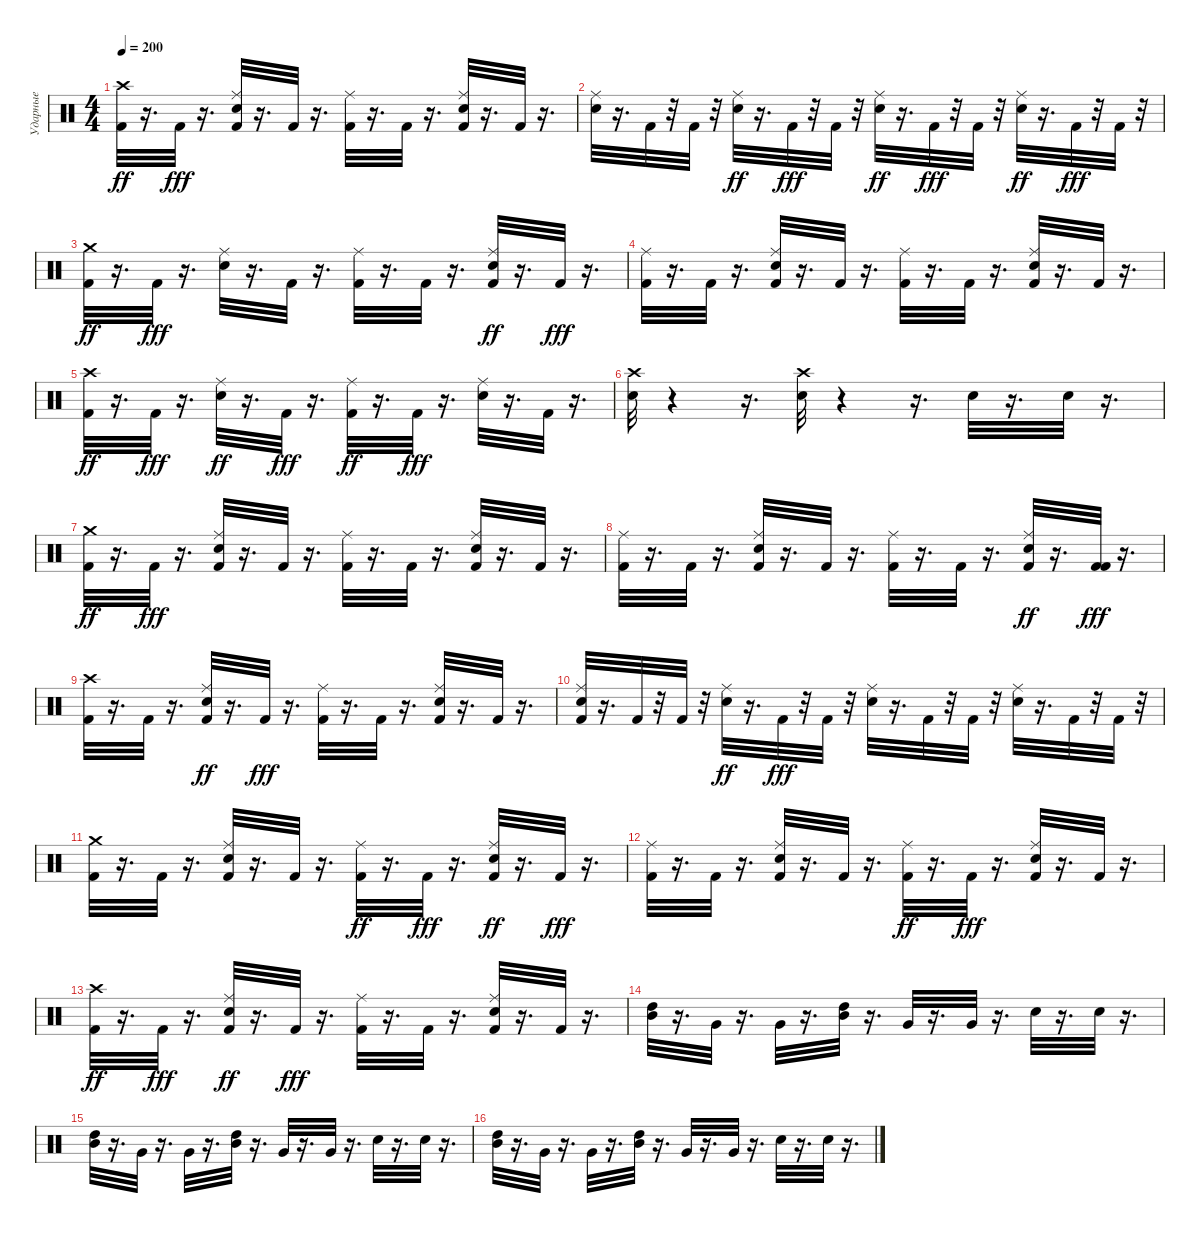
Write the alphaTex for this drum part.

\track ("Ударные" "Ударные") {instrument percussion}
\staff {score}
\articulation defaults
\ts (4 4)
\tempo 200
\clef neutral
\ks c
("Kick (hit) 2" "Crash high (hit)").32{dy ff} r.16{d} "Kick (hit) 2".32{dy fff} r.16{d} ("Kick (hit) 2" "Ride (middle)" "Snare (hit) 2").32 r.16{d} "Kick (hit) 2".32 r.16{d} ("Ride (middle)" "Kick (hit) 2").32 r.16{d} "Kick (hit) 2".32 r.16{d} ("Kick (hit) 2" "Ride (middle)" "Snare (hit) 2").32 r.16{d} "Kick (hit) 2".32 r.16{d} |
("Ride (middle)" "Snare (hit) 2").32 r.16{d} "Kick (hit) 2".32 r.32 "Kick (hit) 2".32 r.32 ("Snare (hit) 2" "Ride (middle)").32{dy ff} r.16{d} "Kick (hit) 2".32{dy fff} r.32 "Kick (hit) 2".32 r.32 ("Snare (hit) 2" "Ride (middle)").32{dy ff} r.16{d} "Kick (hit) 2".32{dy fff} r.32 "Kick (hit) 2".32 r.32 ("Snare (hit) 2" "Ride (middle)").32{dy ff} r.16{d} "Kick (hit) 2".32{dy fff} r.32 "Kick (hit) 2".32 r.32 |
("Kick (hit) 2" "Crash medium (hit)").32{dy ff} r.16{d} "Kick (hit) 2".32{dy fff} r.16{d} ("Ride (middle)" "Snare (hit) 2").32 r.16{d} "Kick (hit) 2".32 r.16{d} ("Ride (middle)" "Kick (hit) 2").32 r.16{d} "Kick (hit) 2".32 r.16{d} ("Kick (hit) 2" "Snare (hit) 2" "Ride (middle)").32{dy ff} r.16{d} "Kick (hit) 2".32{dy fff} r.16{d} |
("Ride (middle)" "Kick (hit) 2").32 r.16{d} "Kick (hit) 2".32 r.16{d} ("Kick (hit) 2" "Ride (middle)" "Snare (hit) 2").32 r.16{d} "Kick (hit) 2".32 r.16{d} ("Ride (middle)" "Kick (hit) 2").32 r.16{d} "Kick (hit) 2".32 r.16{d} ("Kick (hit) 2" "Ride (middle)" "Snare (hit) 2").32 r.16{d} "Kick (hit) 2".32 r.16{d} |
("Kick (hit) 2" "Crash high (hit)").32{dy ff} r.16{d} "Kick (hit) 2".32{dy fff} r.16{d} ("Snare (hit) 2" "Ride (middle)").32{dy ff} r.16{d} "Kick (hit) 2".32{dy fff} r.16{d} ("Kick (hit) 2" "Ride (middle)").32{dy ff} r.16{d} "Kick (hit) 2".32{dy fff} r.16{d} ("Ride (middle)" "Snare (hit) 2").32 r.16{d} "Kick (hit) 2".32 r.16{d} |
("Crash high (hit)" "Snare (hit) 2").32 r.4 r.16{d} ("Crash high (hit)" "Snare (hit) 2").32 r.4 r.16{d} "Snare (hit) 2".32 r.16{d} "Snare (hit) 2".32 r.16{d} |
("Kick (hit) 2" "Crash medium (hit)").32{dy ff} r.16{d} "Kick (hit) 2".32{dy fff} r.16{d} ("Kick (hit) 2" "Ride (middle)" "Snare (hit) 2").32 r.16{d} "Kick (hit) 2".32 r.16{d} ("Ride (middle)" "Kick (hit) 2").32 r.16{d} "Kick (hit) 2".32 r.16{d} ("Kick (hit) 2" "Ride (middle)" "Snare (hit) 2").32 r.16{d} "Kick (hit) 2".32 r.16{d} |
("Ride (middle)" "Kick (hit) 2").32 r.16{d} "Kick (hit) 2".32 r.16{d} ("Ride (middle)" "Snare (hit) 2" "Kick (hit) 2").32 r.16{d} "Kick (hit) 2".32 r.16{d} ("Ride (middle)" "Kick (hit) 2").32 r.16{d} "Kick (hit) 2".32 r.16{d} ("Kick (hit) 2" "Snare (hit) 2" "Ride (middle)").32{dy ff} r.16{d} ("Kick (hit) 2" "Kick (hit) 2").32{dy fff} r.16{d} |
("Crash high (hit)" "Kick (hit) 2").32 r.16{d} "Kick (hit) 2".32 r.16{d} ("Snare (hit) 2" "Kick (hit) 2" "Ride (middle)").32{dy ff} r.16{d} "Kick (hit) 2".32{dy fff} r.16{d} ("Ride (middle)" "Kick (hit) 2").32 r.16{d} "Kick (hit) 2".32 r.16{d} ("Kick (hit) 2" "Ride (middle)" "Snare (hit) 2").32 r.16{d} "Kick (hit) 2".32 r.16{d} |
("Snare (hit) 2" "Ride (middle)" "Kick (hit) 2").32 r.16{d} "Kick (hit) 2".32 r.32 "Kick (hit) 2".32 r.32 ("Snare (hit) 2" "Ride (middle)").32{dy ff} r.16{d} "Kick (hit) 2".32{dy fff} r.32 "Kick (hit) 2".32 r.32 ("Ride (middle)" "Snare (hit) 2").32 r.16{d} "Kick (hit) 2".32 r.32 "Kick (hit) 2".32 r.32 ("Ride (middle)" "Snare (hit) 2").32 r.16{d} "Kick (hit) 2".32 r.32 "Kick (hit) 2".32 r.32 |
("Crash medium (hit)" "Kick (hit) 2").32 r.16{d} "Kick (hit) 2".32 r.16{d} ("Ride (middle)" "Snare (hit) 2" "Kick (hit) 2").32 r.16{d} "Kick (hit) 2".32 r.16{d} ("Kick (hit) 2" "Ride (middle)").32{dy ff} r.16{d} "Kick (hit) 2".32{dy fff} r.16{d} ("Kick (hit) 2" "Snare (hit) 2" "Ride (middle)").32{dy ff} r.16{d} "Kick (hit) 2".32{dy fff} r.16{d} |
("Ride (middle)" "Kick (hit) 2").32 r.16{d} "Kick (hit) 2".32 r.16{d} ("Snare (hit) 2" "Ride (middle)" "Kick (hit) 2").32 r.16{d} "Kick (hit) 2".32 r.16{d} ("Kick (hit) 2" "Ride (middle)").32{dy ff} r.16{d} "Kick (hit) 2".32{dy fff} r.16{d} ("Kick (hit) 2" "Ride (middle)" "Snare (hit) 2").32 r.16{d} "Kick (hit) 2".32 r.16{d} |
("Kick (hit) 2" "Crash high (hit)").32{dy ff} r.16{d} "Kick (hit) 2".32{dy fff} r.16{d} ("Kick (hit) 2" "Snare (hit) 2" "Ride (middle)").32{dy ff} r.16{d} "Kick (hit) 2".32{dy fff} r.16{d} ("Ride (middle)" "Kick (hit) 2").32 r.16{d} "Kick (hit) 2".32 r.16{d} ("Kick (hit) 2" "Ride (middle)" "Snare (hit) 2").32 r.16{d} "Kick (hit) 2".32 r.16{d} |
("High Tom (hit)" "Mid Tom (hit)").32 r.16{d} "Very Low Tom (hit)".32 r.16{d} "Very Low Tom (hit)".32 r.16{d} ("High Tom (hit)" "Mid Tom (hit)").32 r.16{d} "Very Low Tom (hit)".32 r.16{d} "Very Low Tom (hit)".32 r.16{d} "Snare (hit) 2".32 r.16{d} "Snare (hit) 2".32 r.16{d} |
("Mid Tom (hit)" "High Tom (hit)").32 r.16{d} "Very Low Tom (hit)".32 r.16{d} "Very Low Tom (hit)".32 r.16{d} ("High Tom (hit)" "Mid Tom (hit)").32 r.16{d} "Very Low Tom (hit)".32 r.16{d} "Very Low Tom (hit)".32 r.16{d} "Snare (hit) 2".32 r.16{d} "Snare (hit) 2".32 r.16{d} |
("Mid Tom (hit)" "High Tom (hit)").32 r.16{d} "Very Low Tom (hit)".32 r.16{d} "Very Low Tom (hit)".32 r.16{d} ("High Tom (hit)" "Mid Tom (hit)").32 r.16{d} "Very Low Tom (hit)".32 r.16{d} "Very Low Tom (hit)".32 r.16{d} "Snare (hit) 2".32 r.16{d} "Snare (hit) 2".32 r.16{d}
